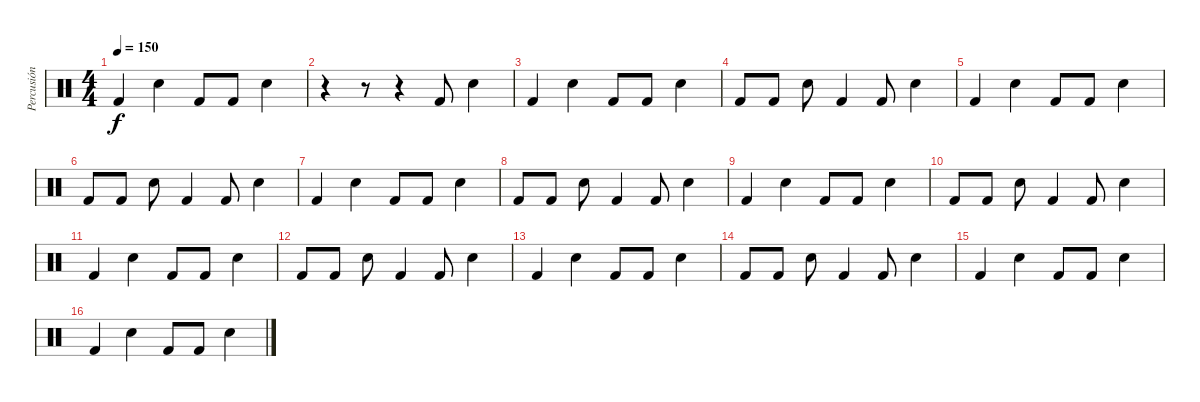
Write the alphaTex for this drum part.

\track ("Percusión" "Percusión") {instrument percussion}
\staff {score}
\articulation defaults
\ts (4 4)
\tempo 150
\clef neutral
\ks c "Kick (hit) 2".4{dy f} "Snare (hit) 2".4 "Kick (hit) 2".8 "Kick (hit) 2".8 "Snare (hit) 2".4
|
r.4 r.8 r.4 "Kick (hit) 2".8 "Snare (hit) 2".4 |
"Kick (hit) 2".4 "Snare (hit) 2".4 "Kick (hit) 2".8 "Kick (hit) 2".8 "Snare (hit) 2".4 |
"Kick (hit) 2".8 "Kick (hit) 2".8 "Snare (hit) 2".8 "Kick (hit) 2".4 "Kick (hit) 2".8 "Snare (hit) 2".4 |
"Kick (hit) 2".4 "Snare (hit) 2".4 "Kick (hit) 2".8 "Kick (hit) 2".8 "Snare (hit) 2".4 |
"Kick (hit) 2".8 "Kick (hit) 2".8 "Snare (hit) 2".8 "Kick (hit) 2".4 "Kick (hit) 2".8 "Snare (hit) 2".4 |
"Kick (hit) 2".4 "Snare (hit) 2".4 "Kick (hit) 2".8 "Kick (hit) 2".8 "Snare (hit) 2".4 |
"Kick (hit) 2".8 "Kick (hit) 2".8 "Snare (hit) 2".8 "Kick (hit) 2".4 "Kick (hit) 2".8 "Snare (hit) 2".4 |
"Kick (hit) 2".4 "Snare (hit) 2".4 "Kick (hit) 2".8 "Kick (hit) 2".8 "Snare (hit) 2".4 |
"Kick (hit) 2".8 "Kick (hit) 2".8 "Snare (hit) 2".8 "Kick (hit) 2".4 "Kick (hit) 2".8 "Snare (hit) 2".4 |
"Kick (hit) 2".4 "Snare (hit) 2".4 "Kick (hit) 2".8 "Kick (hit) 2".8 "Snare (hit) 2".4 |
"Kick (hit) 2".8 "Kick (hit) 2".8 "Snare (hit) 2".8 "Kick (hit) 2".4 "Kick (hit) 2".8 "Snare (hit) 2".4 |
"Kick (hit) 2".4 "Snare (hit) 2".4 "Kick (hit) 2".8 "Kick (hit) 2".8 "Snare (hit) 2".4 |
"Kick (hit) 2".8 "Kick (hit) 2".8 "Snare (hit) 2".8 "Kick (hit) 2".4 "Kick (hit) 2".8 "Snare (hit) 2".4 |
"Kick (hit) 2".4 "Snare (hit) 2".4 "Kick (hit) 2".8 "Kick (hit) 2".8 "Snare (hit) 2".4 |
"Kick (hit) 2".4 "Snare (hit) 2".4 "Kick (hit) 2".8 "Kick (hit) 2".8 "Snare (hit) 2".4
